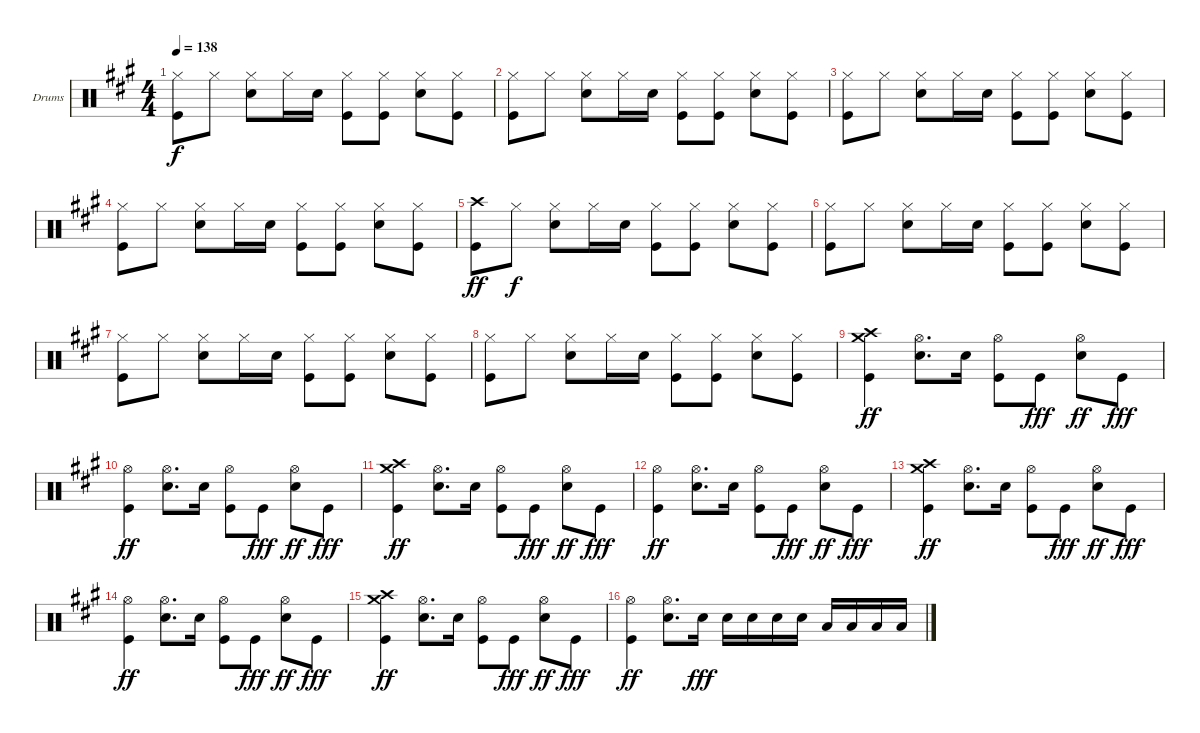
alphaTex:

\defaultSystemsLayout 4
\bracketExtendMode groupsimilarinstruments
\firstSystemTrackNameOrientation horizontal
\otherSystemsTrackNameOrientation horizontal
\track ("Drumkit" "Drums") {instrument percussion}
\staff {score}
\articulation defaults
\ts (4 4)
\tempo 138
\clef neutral
\scale
1.05801
\ks a
("Hi-Hat (closed)" "Kick (hit)").8{dy f} "Hi-Hat (closed)".8 ("Hi-Hat (closed)" "Snare (hit) 2").8 "Hi-Hat (closed)".16 "Snare (hit) 2".16 ("Hi-Hat (closed)" "Kick (hit)").8 ("Hi-Hat (closed)" "Kick (hit)").8 ("Hi-Hat (closed)" "Snare (hit) 2").8 ("Hi-Hat (closed)" "Kick (hit)").8 |
\scale
0.941992 ("Hi-Hat (closed)" "Kick (hit)").8 "Hi-Hat (closed)".8 ("Hi-Hat (closed)" "Snare (hit) 2").8 "Hi-Hat (closed)".16 "Snare (hit) 2".16 ("Hi-Hat (closed)" "Kick (hit)").8 ("Hi-Hat (closed)" "Kick (hit)").8 ("Hi-Hat (closed)" "Snare (hit) 2").8 ("Hi-Hat (closed)" "Kick (hit)").8 |
\scale
1.05801 ("Hi-Hat (closed)" "Kick (hit)").8 "Hi-Hat (closed)".8 ("Hi-Hat (closed)" "Snare (hit) 2").8 "Hi-Hat (closed)".16 "Snare (hit) 2".16 ("Hi-Hat (closed)" "Kick (hit)").8 ("Hi-Hat (closed)" "Kick (hit)").8 ("Hi-Hat (closed)" "Snare (hit) 2").8 ("Hi-Hat (closed)" "Kick (hit)").8 |
\scale
0.941992 ("Hi-Hat (closed)" "Kick (hit)").8 "Hi-Hat (closed)".8 ("Hi-Hat (closed)" "Snare (hit) 2").8 "Hi-Hat (closed)".16 "Snare (hit) 2".16 ("Hi-Hat (closed)" "Kick (hit)").8 ("Hi-Hat (closed)" "Kick (hit)").8 ("Hi-Hat (closed)" "Snare (hit) 2").8 ("Hi-Hat (closed)" "Kick (hit)").8 |
\scale
1.05801 ("Crash high (hit)" "Kick (hit)").8{dy ff} "Hi-Hat (closed)".8{dy f} ("Hi-Hat (closed)" "Snare (hit) 2").8 "Hi-Hat (closed)".16 "Snare (hit) 2".16 ("Hi-Hat (closed)" "Kick (hit)").8 ("Hi-Hat (closed)" "Kick (hit)").8 ("Hi-Hat (closed)" "Snare (hit) 2").8 ("Hi-Hat (closed)" "Kick (hit)").8 |
\scale
0.941992 ("Hi-Hat (closed)" "Kick (hit)").8 "Hi-Hat (closed)".8 ("Hi-Hat (closed)" "Snare (hit) 2").8 "Hi-Hat (closed)".16 "Snare (hit) 2".16 ("Hi-Hat (closed)" "Kick (hit)").8 ("Hi-Hat (closed)" "Kick (hit)").8 ("Hi-Hat (closed)" "Snare (hit) 2").8 ("Hi-Hat (closed)" "Kick (hit)").8 |
\scale
1.05801 ("Hi-Hat (closed)" "Kick (hit)").8 "Hi-Hat (closed)".8 ("Hi-Hat (closed)" "Snare (hit) 2").8 "Hi-Hat (closed)".16 "Snare (hit) 2".16 ("Hi-Hat (closed)" "Kick (hit)").8 ("Hi-Hat (closed)" "Kick (hit)").8 ("Hi-Hat (closed)" "Snare (hit) 2").8 ("Hi-Hat (closed)" "Kick (hit)").8 |
\scale
0.941992 ("Hi-Hat (closed)" "Kick (hit)").8 "Hi-Hat (closed)".8 ("Hi-Hat (closed)" "Snare (hit) 2").8 "Hi-Hat (closed)".16 "Snare (hit) 2".16 ("Hi-Hat (closed)" "Kick (hit)").8 ("Hi-Hat (closed)" "Kick (hit)").8 ("Hi-Hat (closed)" "Snare (hit) 2").8 ("Hi-Hat (closed)" "Kick (hit)").8 |
\scale
1.05801 ("Crash high (hit)" "Crash medium (hit)" "Kick (hit)").4{dy ff} ("Hi-Hat (open)" "Snare (hit) 2").8{d} "Snare (hit) 2".16 ("Hi-Hat (open)" "Kick (hit)").8 "Kick (hit)".8{dy fff} ("Hi-Hat (open)" "Snare (hit) 2").8{dy ff} "Kick (hit)".8{dy fff} |
\scale
0.941992 ("Hi-Hat (open)" "Kick (hit)").4{dy ff} ("Hi-Hat (open)" "Snare (hit) 2").8{d} "Snare (hit) 2".16 ("Hi-Hat (open)" "Kick (hit)").8 "Kick (hit)".8{dy fff} ("Hi-Hat (open)" "Snare (hit) 2").8{dy ff} "Kick (hit)".8{dy fff} |
\scale
1.05801 ("Crash high (hit)" "Crash medium (hit)" "Kick (hit)").4{dy ff} ("Hi-Hat (open)" "Snare (hit) 2").8{d} "Snare (hit) 2".16 ("Hi-Hat (open)" "Kick (hit)").8 "Kick (hit)".8{dy fff} ("Hi-Hat (open)" "Snare (hit) 2").8{dy ff} "Kick (hit)".8{dy fff} |
\scale
0.941992 ("Hi-Hat (open)" "Kick (hit)").4{dy ff} ("Hi-Hat (open)" "Snare (hit) 2").8{d} "Snare (hit) 2".16 ("Hi-Hat (open)" "Kick (hit)").8 "Kick (hit)".8{dy fff} ("Hi-Hat (open)" "Snare (hit) 2").8{dy ff} "Kick (hit)".8{dy fff} |
\scale
1.05801 ("Crash high (hit)" "Crash medium (hit)" "Kick (hit)").4{dy ff} ("Hi-Hat (open)" "Snare (hit) 2").8{d} "Snare (hit) 2".16 ("Hi-Hat (open)" "Kick (hit)").8 "Kick (hit)".8{dy fff} ("Hi-Hat (open)" "Snare (hit) 2").8{dy ff} "Kick (hit)".8{dy fff} |
\scale
0.941992 ("Hi-Hat (open)" "Kick (hit)").4{dy ff} ("Hi-Hat (open)" "Snare (hit) 2").8{d} "Snare (hit) 2".16 ("Hi-Hat (open)" "Kick (hit)").8 "Kick (hit)".8{dy fff} ("Hi-Hat (open)" "Snare (hit) 2").8{dy ff} "Kick (hit)".8{dy fff} |
\scale
1.05801 ("Crash high (hit)" "Crash medium (hit)" "Kick (hit)").4{dy ff} ("Hi-Hat (open)" "Snare (hit) 2").8{d} "Snare (hit) 2".16 ("Hi-Hat (open)" "Kick (hit)").8 "Kick (hit)".8{dy fff} ("Hi-Hat (open)" "Snare (hit) 2").8{dy ff} "Kick (hit)".8{dy fff} |
\scale
0.941992 ("Hi-Hat (open)" "Kick (hit)").4{dy ff} ("Hi-Hat (open)" "Snare (hit) 2").8{d} "Snare (hit) 2".16{dy fff} "Snare (hit) 2".16 "Snare (hit) 2".16 "Snare (hit) 2".16 "Snare (hit) 2".16 "Low Tom (hit)".16 "Low Tom (hit)".16 "Low Tom (hit)".16 "Low Tom (hit)".16
